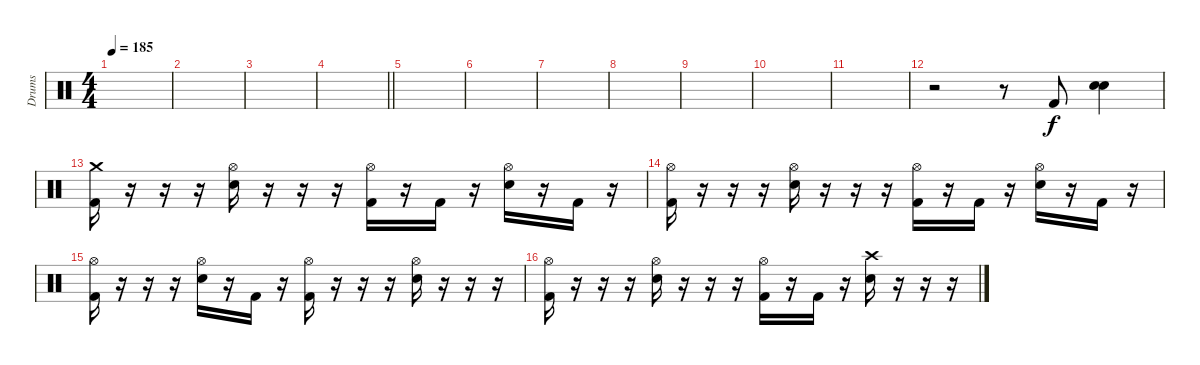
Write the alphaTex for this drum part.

\track ("Drums" "Drums") {instrument percussion}
\staff {score}
\articulation defaults
\ts (4 4)
\tempo 185
\clef neutral
\ks c
|
|
|
\barLineRight lightlight
|
\section ("" "")
|
|
|
|
|
|
|
r.2 r.8 "Kick (hit) 2".8 ("Electric Snare (hit)" "Snare (hit) 2").4 |
("Crash medium (hit)" "Kick (hit) 2").16 r.16 r.16 r.16 ("Hi-Hat (open)" "Electric Snare (hit)").16 r.16 r.16 r.16 ("Hi-Hat (open)" "Kick (hit) 2").16 r.16 "Kick (hit) 2".16 r.16 ("Hi-Hat (open)" "Electric Snare (hit)").16 r.16 "Kick (hit) 2".16 r.16 |
("Hi-Hat (open)" "Kick (hit) 2").16 r.16 r.16 r.16 ("Hi-Hat (open)" "Electric Snare (hit)").16 r.16 r.16 r.16 ("Hi-Hat (open)" "Kick (hit) 2").16 r.16 "Kick (hit) 2".16 r.16 ("Hi-Hat (open)" "Electric Snare (hit)").16 r.16 "Kick (hit) 2".16 r.16 |
("Hi-Hat (open)" "Kick (hit) 2").16 r.16 r.16 r.16 ("Hi-Hat (open)" "Electric Snare (hit)").16 r.16 "Kick (hit) 2".16 r.16 ("Hi-Hat (open)" "Kick (hit) 2").16 r.16 r.16 r.16 ("Hi-Hat (open)" "Electric Snare (hit)").16 r.16 r.16 r.16 |
("Hi-Hat (open)" "Kick (hit) 2").16 r.16 r.16 r.16 ("Hi-Hat (open)" "Electric Snare (hit)").16 r.16 r.16 r.16 ("Hi-Hat (open)" "Kick (hit) 2").16 r.16 "Kick (hit) 2".16 r.16 ("Crash high (hit)" "Electric Snare (hit)").16 r.16 r.16 r.16
